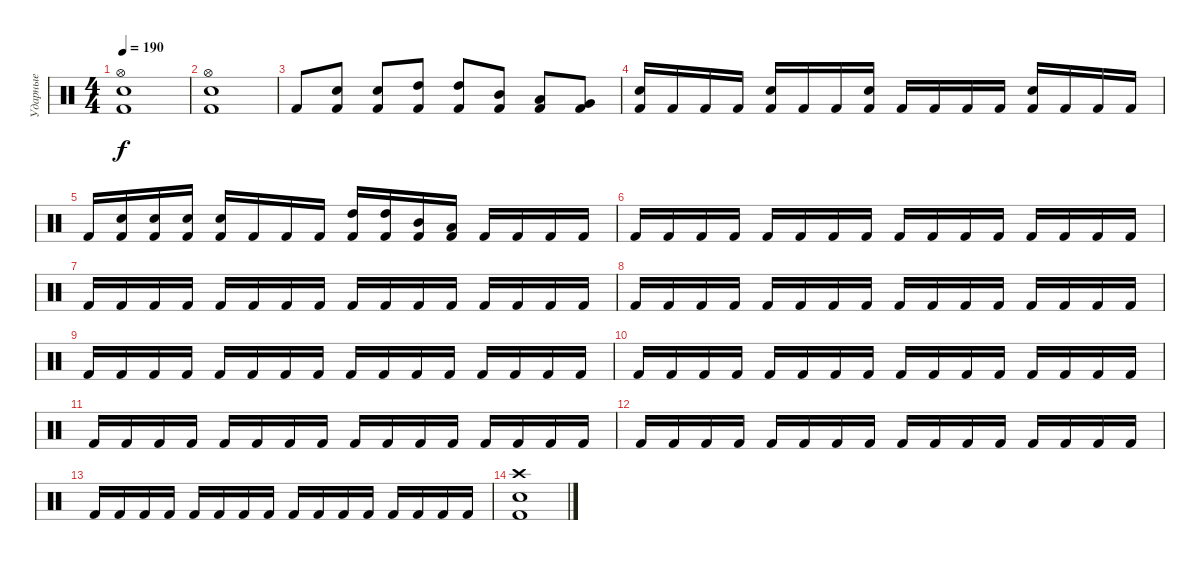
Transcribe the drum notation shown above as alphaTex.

\track ("Ударные" "Ударные") {instrument percussion}
\staff
\articulation defaults
\ts (4 4)
\tempo 190
\clef neutral
\ks c
("Kick (hit) 2" "Snare (hit) 2" "Hi-Hat (open)").1{dy f} |
("Kick (hit) 2" "Snare (hit) 2" "Hi-Hat (open)").1 |
"Kick (hit) 2".8 ("Kick (hit) 2" "Snare (hit) 2").8 ("Kick (hit) 2" "Snare (hit) 2").8 ("Kick (hit) 2" "High Tom (hit)").8 ("Kick (hit) 2" "High Tom (hit)").8 ("Kick (hit) 2" "Mid Tom (hit)").8 ("Kick (hit) 2" "Low Tom (hit)").8 ("Kick (hit) 2" "Very Low Tom (hit)").8 |
("Kick (hit) 2" "Snare (hit) 2").16 "Kick (hit) 2".16 "Kick (hit) 2".16 "Kick (hit) 2".16 ("Kick (hit) 2" "Snare (hit) 2").16 "Kick (hit) 2".16 "Kick (hit) 2".16 ("Kick (hit) 2" "Snare (hit) 2").16 "Kick (hit) 2".16 "Kick (hit) 2".16 "Kick (hit) 2".16 "Kick (hit) 2".16 ("Kick (hit) 2" "Snare (hit) 2").16 "Kick (hit) 2".16 "Kick (hit) 2".16 "Kick (hit) 2".16 |
"Kick (hit) 2".16 ("Kick (hit) 2" "Snare (hit) 2").16 ("Kick (hit) 2" "Snare (hit) 2").16 ("Kick (hit) 2" "Snare (hit) 2").16 ("Kick (hit) 2" "Snare (hit) 2").16 "Kick (hit) 2".16 "Kick (hit) 2".16 "Kick (hit) 2".16 ("Kick (hit) 2" "High Tom (hit)").16 ("Kick (hit) 2" "High Tom (hit)").16 ("Kick (hit) 2" "Mid Tom (hit)").16 ("Kick (hit) 2" "Low Tom (hit)").16 "Kick (hit) 2".16 "Kick (hit) 2".16 "Kick (hit) 2".16 "Kick (hit) 2".16 |
"Kick (hit) 2".16 "Kick (hit) 2".16 "Kick (hit) 2".16 "Kick (hit) 2".16 "Kick (hit) 2".16 "Kick (hit) 2".16 "Kick (hit) 2".16 "Kick (hit) 2".16 "Kick (hit) 2".16 "Kick (hit) 2".16 "Kick (hit) 2".16 "Kick (hit) 2".16 "Kick (hit) 2".16 "Kick (hit) 2".16 "Kick (hit) 2".16 "Kick (hit) 2".16 |
"Kick (hit) 2".16 "Kick (hit) 2".16 "Kick (hit) 2".16 "Kick (hit) 2".16 "Kick (hit) 2".16 "Kick (hit) 2".16 "Kick (hit) 2".16 "Kick (hit) 2".16 "Kick (hit) 2".16 "Kick (hit) 2".16 "Kick (hit) 2".16 "Kick (hit) 2".16 "Kick (hit) 2".16 "Kick (hit) 2".16 "Kick (hit) 2".16 "Kick (hit) 2".16 |
"Kick (hit) 2".16 "Kick (hit) 2".16 "Kick (hit) 2".16 "Kick (hit) 2".16 "Kick (hit) 2".16 "Kick (hit) 2".16 "Kick (hit) 2".16 "Kick (hit) 2".16 "Kick (hit) 2".16 "Kick (hit) 2".16 "Kick (hit) 2".16 "Kick (hit) 2".16 "Kick (hit) 2".16 "Kick (hit) 2".16 "Kick (hit) 2".16 "Kick (hit) 2".16 |
"Kick (hit) 2".16 "Kick (hit) 2".16 "Kick (hit) 2".16 "Kick (hit) 2".16 "Kick (hit) 2".16 "Kick (hit) 2".16 "Kick (hit) 2".16 "Kick (hit) 2".16 "Kick (hit) 2".16 "Kick (hit) 2".16 "Kick (hit) 2".16 "Kick (hit) 2".16 "Kick (hit) 2".16 "Kick (hit) 2".16 "Kick (hit) 2".16 "Kick (hit) 2".16 |
"Kick (hit) 2".16 "Kick (hit) 2".16 "Kick (hit) 2".16 "Kick (hit) 2".16 "Kick (hit) 2".16 "Kick (hit) 2".16 "Kick (hit) 2".16 "Kick (hit) 2".16 "Kick (hit) 2".16 "Kick (hit) 2".16 "Kick (hit) 2".16 "Kick (hit) 2".16 "Kick (hit) 2".16 "Kick (hit) 2".16 "Kick (hit) 2".16 "Kick (hit) 2".16 |
"Kick (hit) 2".16 "Kick (hit) 2".16 "Kick (hit) 2".16 "Kick (hit) 2".16 "Kick (hit) 2".16 "Kick (hit) 2".16 "Kick (hit) 2".16 "Kick (hit) 2".16 "Kick (hit) 2".16 "Kick (hit) 2".16 "Kick (hit) 2".16 "Kick (hit) 2".16 "Kick (hit) 2".16 "Kick (hit) 2".16 "Kick (hit) 2".16 "Kick (hit) 2".16 |
"Kick (hit) 2".16 "Kick (hit) 2".16 "Kick (hit) 2".16 "Kick (hit) 2".16 "Kick (hit) 2".16 "Kick (hit) 2".16 "Kick (hit) 2".16 "Kick (hit) 2".16 "Kick (hit) 2".16 "Kick (hit) 2".16 "Kick (hit) 2".16 "Kick (hit) 2".16 "Kick (hit) 2".16 "Kick (hit) 2".16 "Kick (hit) 2".16 "Kick (hit) 2".16 |
"Kick (hit) 2".16 "Kick (hit) 2".16 "Kick (hit) 2".16 "Kick (hit) 2".16 "Kick (hit) 2".16 "Kick (hit) 2".16 "Kick (hit) 2".16 "Kick (hit) 2".16 "Kick (hit) 2".16 "Kick (hit) 2".16 "Kick (hit) 2".16 "Kick (hit) 2".16 "Kick (hit) 2".16 "Kick (hit) 2".16 "Kick (hit) 2".16 "Kick (hit) 2".16 |
("Kick (hit) 2" "Snare (hit) 2" "Crash high (hit)").1
